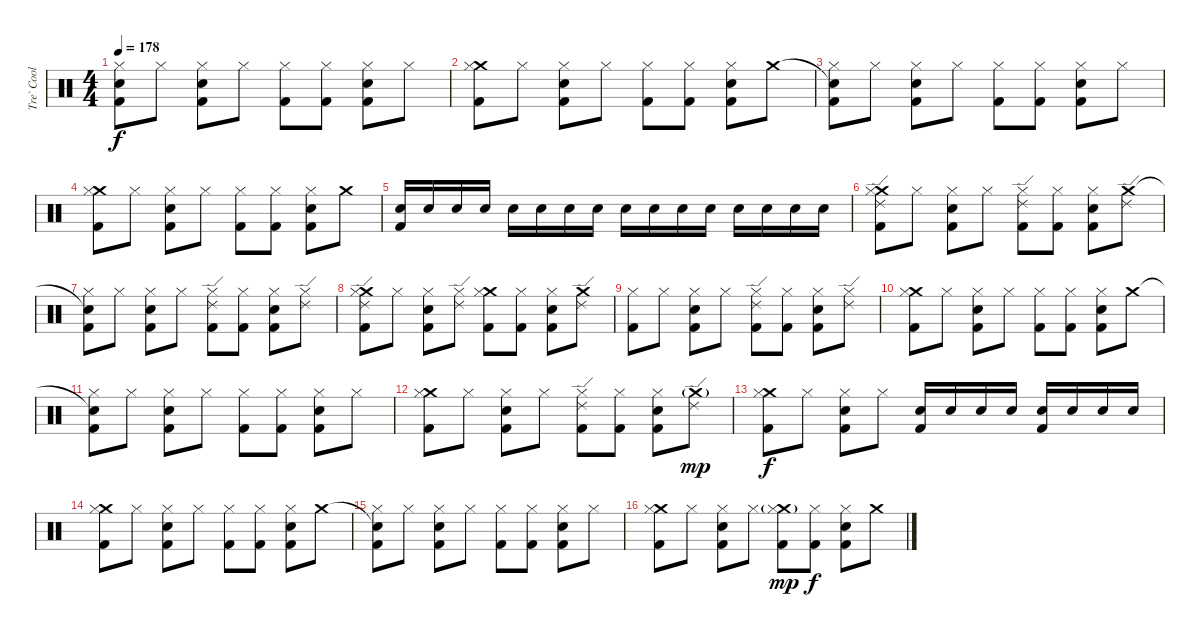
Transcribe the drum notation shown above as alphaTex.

\track ("Tre` Cool (Drums)" "Tre` Cool ") {instrument percussion}
\staff {score}
\articulation defaults
\ts (4 4)
\tempo 178
\clef neutral
\ks c
("Snare (hit)"{t} "Hi-Hat (closed)" "Kick (hit) 2").8{dy f} "Hi-Hat (closed)".8 ("Hi-Hat (closed)" "Snare (hit) 2" "Kick (hit) 2").8 "Hi-Hat (closed)".8 ("Hi-Hat (closed)" "Kick (hit) 2").8 ("Hi-Hat (closed)" "Kick (hit) 2").8 ("Hi-Hat (closed)" "Snare (hit) 2" "Kick (hit) 2").8 "Hi-Hat (closed)".8 |
("Crash medium (hit)" "Hi-Hat (closed)" "Kick (hit) 2").8 "Hi-Hat (closed)".8 ("Hi-Hat (closed)" "Snare (hit) 2" "Kick (hit) 2").8 "Hi-Hat (closed)".8 ("Hi-Hat (closed)" "Kick (hit) 2").8 ("Hi-Hat (closed)" "Kick (hit) 2").8 ("Hi-Hat (closed)" "Snare (hit) 2" "Kick (hit) 2").8 "Crash medium (hit)".8 |
("Snare (hit)"{t} "Hi-Hat (closed)" "Kick (hit) 2").8 "Hi-Hat (closed)".8 ("Hi-Hat (closed)" "Snare (hit) 2" "Kick (hit) 2").8 "Hi-Hat (closed)".8 ("Hi-Hat (closed)" "Kick (hit) 2").8 ("Hi-Hat (closed)" "Kick (hit) 2").8 ("Hi-Hat (closed)" "Snare (hit) 2" "Kick (hit) 2").8 "Hi-Hat (closed)".8 |
("Crash medium (hit)" "Hi-Hat (closed)" "Kick (hit) 2").8 "Hi-Hat (closed)".8 ("Hi-Hat (closed)" "Snare (hit) 2" "Kick (hit) 2").8 "Hi-Hat (closed)".8 ("Hi-Hat (closed)" "Kick (hit) 2").8 ("Hi-Hat (closed)" "Kick (hit) 2").8 ("Hi-Hat (closed)" "Snare (hit) 2" "Kick (hit) 2").8 "Crash medium (hit)".8 |
("Snare (hit) 2" "Kick (hit) 2").16 "Snare (hit) 2".16 "Snare (hit) 2".16 "Snare (hit) 2".16 "Snare (hit) 2".16 "Snare (hit) 2".16 "Snare (hit) 2".16 "Snare (hit) 2".16 "Snare (hit) 2".16 "Snare (hit) 2".16 "Snare (hit) 2".16 "Snare (hit) 2".16 "Snare (hit) 2".16 "Snare (hit) 2".16 "Snare (hit) 2".16 "Snare (hit) 2".16 |
("Crash medium (hit)" "Ride (edge) 2" "Hi-Hat (closed)" "Kick (hit) 2").8 "Hi-Hat (closed)".8 ("Hi-Hat (closed)" "Snare (hit) 2" "Kick (hit) 2").8 "Hi-Hat (closed)".8 ("Ride (edge) 2" "Hi-Hat (closed)" "Kick (hit) 2").8 ("Hi-Hat (closed)" "Kick (hit) 2").8 ("Hi-Hat (closed)" "Snare (hit) 2" "Kick (hit) 2").8 ("Crash medium (hit)" "Ride (edge) 2").8 |
("Snare (hit)"{t} "Hi-Hat (closed)" "Kick (hit) 2").8 "Hi-Hat (closed)".8 ("Hi-Hat (closed)" "Snare (hit) 2" "Kick (hit) 2").8 "Hi-Hat (closed)".8 ("Ride (edge) 2" "Hi-Hat (closed)" "Kick (hit) 2").8 ("Hi-Hat (closed)" "Kick (hit) 2").8 ("Hi-Hat (closed)" "Snare (hit) 2" "Kick (hit) 2").8 ("Ride (edge) 2" "Hi-Hat (closed)").8 |
("Crash medium (hit)" "Ride (edge) 2" "Hi-Hat (closed)" "Kick (hit) 2").8 "Hi-Hat (closed)".8 ("Hi-Hat (closed)" "Snare (hit) 2" "Kick (hit) 2").8 ("Ride (edge) 2" "Hi-Hat (closed)").8 ("Crash medium (hit)" "Hi-Hat (closed)" "Kick (hit) 2").8 ("Hi-Hat (closed)" "Kick (hit) 2").8 ("Hi-Hat (closed)" "Snare (hit) 2" "Kick (hit) 2").8 ("Crash medium (hit)" "Ride (edge) 2").8 |
("Hi-Hat (closed)" "Kick (hit) 2").8 "Hi-Hat (closed)".8 ("Hi-Hat (closed)" "Snare (hit) 2" "Kick (hit) 2").8 "Hi-Hat (closed)".8 ("Ride (edge) 2" "Hi-Hat (closed)" "Kick (hit) 2").8 ("Hi-Hat (closed)" "Kick (hit) 2").8 ("Hi-Hat (closed)" "Snare (hit) 2" "Kick (hit) 2").8 ("Ride (edge) 2" "Hi-Hat (closed)").8 |
("Crash medium (hit)" "Hi-Hat (closed)" "Kick (hit) 2").8 "Hi-Hat (closed)".8 ("Hi-Hat (closed)" "Snare (hit) 2" "Kick (hit) 2").8 "Hi-Hat (closed)".8 ("Hi-Hat (closed)" "Kick (hit) 2").8 ("Hi-Hat (closed)" "Kick (hit) 2").8 ("Hi-Hat (closed)" "Snare (hit) 2" "Kick (hit) 2").8 "Crash medium (hit)".8 |
("Snare (hit)"{t} "Hi-Hat (closed)" "Kick (hit) 2").8 "Hi-Hat (closed)".8 ("Hi-Hat (closed)" "Snare (hit) 2" "Kick (hit) 2").8 "Hi-Hat (closed)".8 ("Hi-Hat (closed)" "Kick (hit) 2").8 ("Hi-Hat (closed)" "Kick (hit) 2").8 ("Hi-Hat (closed)" "Snare (hit) 2" "Kick (hit) 2").8 "Hi-Hat (closed)".8 |
("Crash medium (hit)" "Hi-Hat (closed)" "Kick (hit) 2").8 "Hi-Hat (closed)".8 ("Hi-Hat (closed)" "Snare (hit) 2" "Kick (hit) 2").8 "Hi-Hat (closed)".8 ("Ride (edge) 2" "Hi-Hat (closed)" "Kick (hit) 2").8 ("Hi-Hat (closed)" "Kick (hit) 2").8 ("Hi-Hat (closed)" "Snare (hit) 2" "Kick (hit) 2").8 ("Crash medium (hit)"{g} "Ride (edge) 2").8{dy mp} |
("Crash medium (hit)" "Hi-Hat (closed)" "Kick (hit) 2").8{dy f} "Hi-Hat (closed)".8 ("Hi-Hat (closed)" "Snare (hit) 2" "Kick (hit) 2").8 "Hi-Hat (closed)".8 ("Snare (hit) 2" "Kick (hit) 2").16 "Snare (hit) 2".16 "Snare (hit) 2".16 "Snare (hit) 2".16 ("Snare (hit) 2" "Kick (hit) 2").16 "Snare (hit) 2".16 "Snare (hit) 2".16 "Snare (hit) 2".16 |
("Crash medium (hit)" "Hi-Hat (closed)" "Kick (hit) 2").8 "Hi-Hat (closed)".8 ("Hi-Hat (closed)" "Snare (hit) 2" "Kick (hit) 2").8 "Hi-Hat (closed)".8 ("Hi-Hat (closed)" "Kick (hit) 2").8 ("Hi-Hat (closed)" "Kick (hit) 2").8 ("Hi-Hat (closed)" "Snare (hit) 2" "Kick (hit) 2").8 "Crash medium (hit)".8 |
("Snare (hit)"{t} "Hi-Hat (closed)" "Kick (hit) 2").8 "Hi-Hat (closed)".8 ("Hi-Hat (closed)" "Snare (hit) 2" "Kick (hit) 2").8 "Hi-Hat (closed)".8 ("Hi-Hat (closed)" "Kick (hit) 2").8 ("Hi-Hat (closed)" "Kick (hit) 2").8 ("Hi-Hat (closed)" "Snare (hit) 2" "Kick (hit) 2").8 "Hi-Hat (closed)".8 |
("Crash medium (hit)" "Hi-Hat (closed)" "Kick (hit) 2").8 "Hi-Hat (closed)".8 ("Hi-Hat (closed)" "Snare (hit) 2" "Kick (hit) 2").8 "Hi-Hat (closed)".8 ("Crash medium (hit)"{g} "Hi-Hat (closed)" "Kick (hit) 2").8{dy mp} ("Hi-Hat (closed)" "Kick (hit) 2").8{dy f} ("Hi-Hat (closed)" "Snare (hit) 2" "Kick (hit) 2").8 "Crash medium (hit)".8
